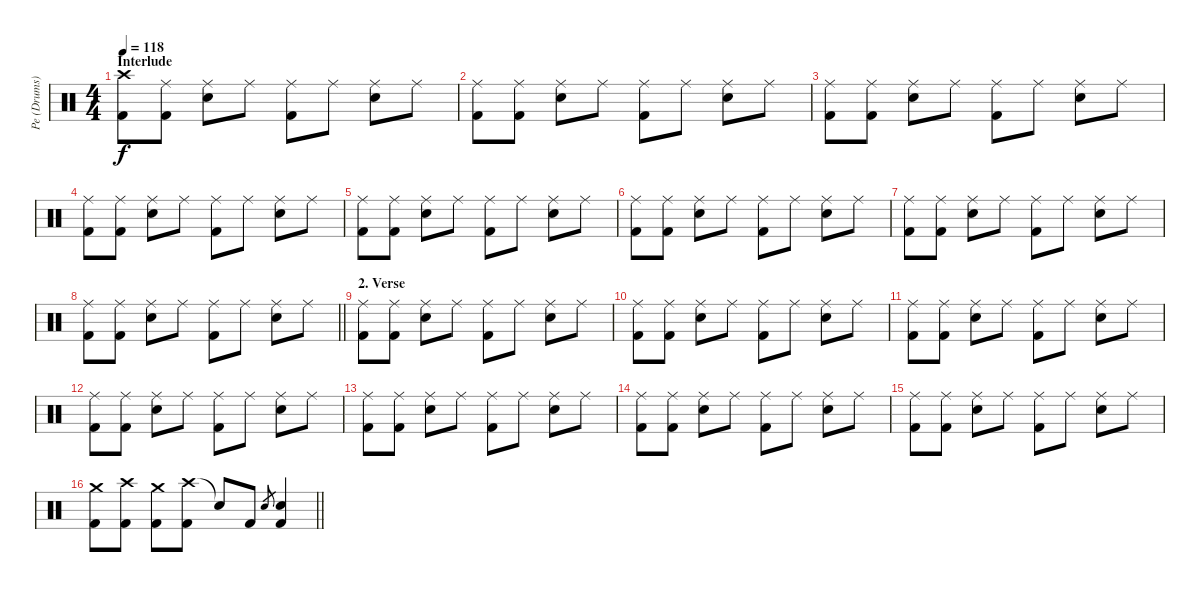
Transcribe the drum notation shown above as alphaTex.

\track ("Pe (Drums)" "Pe (Drums)") {instrument percussion}
\staff {score}
\articulation defaults
\ts (4 4)
\section ("" "Interlude")
\tempo 118
\clef neutral
\ks c
("Crash high (hit)" "Kick (hit) 2").8{dy f} ("Ride (middle)" "Kick (hit) 2").8 ("Ride (middle)" "Snare (hit) 2").8 "Ride (middle)".8 ("Ride (middle)" "Kick (hit) 2").8 "Ride (middle)".8 ("Ride (middle)" "Snare (hit) 2").8 "Ride (middle)".8 |
("Ride (middle)" "Kick (hit) 2").8 ("Ride (middle)" "Kick (hit) 2").8 ("Ride (middle)" "Snare (hit) 2").8 "Ride (middle)".8 ("Ride (middle)" "Kick (hit) 2").8 "Ride (middle)".8 ("Ride (middle)" "Snare (hit) 2").8 "Ride (middle)".8 |
("Ride (middle)" "Kick (hit) 2").8 ("Ride (middle)" "Kick (hit) 2").8 ("Ride (middle)" "Snare (hit) 2").8 "Ride (middle)".8 ("Ride (middle)" "Kick (hit) 2").8 "Ride (middle)".8 ("Ride (middle)" "Snare (hit) 2").8 "Ride (middle)".8 |
("Ride (middle)" "Kick (hit) 2").8 ("Ride (middle)" "Kick (hit) 2").8 ("Ride (middle)" "Snare (hit) 2").8 "Ride (middle)".8 ("Ride (middle)" "Kick (hit) 2").8 "Ride (middle)".8 ("Ride (middle)" "Snare (hit) 2").8 "Ride (middle)".8 |
("Ride (middle)" "Kick (hit) 2").8 ("Ride (middle)" "Kick (hit) 2").8 ("Ride (middle)" "Snare (hit) 2").8 "Ride (middle)".8 ("Ride (middle)" "Kick (hit) 2").8 "Ride (middle)".8 ("Ride (middle)" "Snare (hit) 2").8 "Ride (middle)".8 |
("Ride (middle)" "Kick (hit) 2").8 ("Ride (middle)" "Kick (hit) 2").8 ("Ride (middle)" "Snare (hit) 2").8 "Ride (middle)".8 ("Ride (middle)" "Kick (hit) 2").8 "Ride (middle)".8 ("Ride (middle)" "Snare (hit) 2").8 "Ride (middle)".8 |
("Ride (middle)" "Kick (hit) 2").8 ("Ride (middle)" "Kick (hit) 2").8 ("Ride (middle)" "Snare (hit) 2").8 "Ride (middle)".8 ("Ride (middle)" "Kick (hit) 2").8 "Ride (middle)".8 ("Ride (middle)" "Snare (hit) 2").8 "Ride (middle)".8 |
\barLineRight lightlight
("Ride (middle)" "Kick (hit) 2").8 ("Ride (middle)" "Kick (hit) 2").8 ("Ride (middle)" "Snare (hit) 2").8 "Ride (middle)".8 ("Ride (middle)" "Kick (hit) 2").8 "Ride (middle)".8 ("Ride (middle)" "Snare (hit) 2").8 "Ride (middle)".8 |
\section ("" "2. Verse")
("Ride (middle)" "Kick (hit) 2").8 ("Ride (middle)" "Kick (hit) 2").8 ("Ride (middle)" "Snare (hit) 2").8 "Ride (middle)".8 ("Ride (middle)" "Kick (hit) 2").8 "Ride (middle)".8 ("Ride (middle)" "Snare (hit) 2").8 "Ride (middle)".8 |
("Ride (middle)" "Kick (hit) 2").8 ("Ride (middle)" "Kick (hit) 2").8 ("Ride (middle)" "Snare (hit) 2").8 "Ride (middle)".8 ("Ride (middle)" "Kick (hit) 2").8 "Ride (middle)".8 ("Ride (middle)" "Snare (hit) 2").8 "Ride (middle)".8 |
("Ride (middle)" "Kick (hit) 2").8 ("Ride (middle)" "Kick (hit) 2").8 ("Ride (middle)" "Snare (hit) 2").8 "Ride (middle)".8 ("Ride (middle)" "Kick (hit) 2").8 "Ride (middle)".8 ("Ride (middle)" "Snare (hit) 2").8 "Ride (middle)".8 |
("Ride (middle)" "Kick (hit) 2").8 ("Ride (middle)" "Kick (hit) 2").8 ("Ride (middle)" "Snare (hit) 2").8 "Ride (middle)".8 ("Ride (middle)" "Kick (hit) 2").8 "Ride (middle)".8 ("Ride (middle)" "Snare (hit) 2").8 "Ride (middle)".8 |
("Ride (middle)" "Kick (hit) 2").8 ("Ride (middle)" "Kick (hit) 2").8 ("Ride (middle)" "Snare (hit) 2").8 "Ride (middle)".8 ("Ride (middle)" "Kick (hit) 2").8 "Ride (middle)".8 ("Ride (middle)" "Snare (hit) 2").8 "Ride (middle)".8 |
("Ride (middle)" "Kick (hit) 2").8 ("Ride (middle)" "Kick (hit) 2").8 ("Ride (middle)" "Snare (hit) 2").8 "Ride (middle)".8 ("Ride (middle)" "Kick (hit) 2").8 "Ride (middle)".8 ("Ride (middle)" "Snare (hit) 2").8 "Ride (middle)".8 |
("Ride (middle)" "Kick (hit) 2").8 ("Ride (middle)" "Kick (hit) 2").8 ("Ride (middle)" "Snare (hit) 2").8 "Ride (middle)".8 ("Ride (middle)" "Kick (hit) 2").8 "Ride (middle)".8 ("Ride (middle)" "Snare (hit) 2").8 "Ride (middle)".8 |
\barLineRight lightlight
("Crash medium (hit)" "Kick (hit) 2").8 ("Crash high (hit)" "Kick (hit) 2").8 ("Crash medium (hit)" "Kick (hit) 2").8 ("Crash high (hit)" "Kick (hit) 2").8 "Snare (hit)"{t}.8 "Kick (hit) 2".8 "Snare (hit) 2".8{gr} ("Snare (hit) 2" "Kick (hit) 2").4
